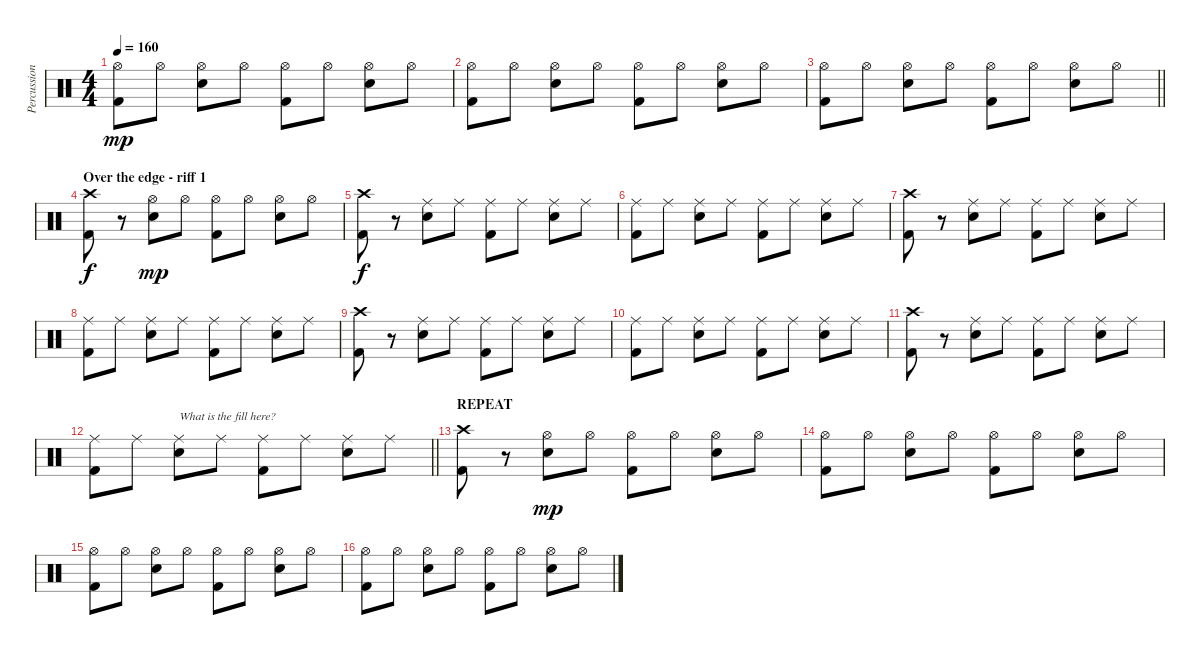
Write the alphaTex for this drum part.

\track ("Percussion - live 1983" "Percussion") {mute instrument percussion}
\staff {score}
\articulation defaults
\ts (4 4)
\tempo 160
\clef neutral
\ks c
("Hi-Hat (open)" "Kick (hit) 2").8{dy mp} "Hi-Hat (open)".8 ("Hi-Hat (open)" "Snare (hit) 2").8 "Hi-Hat (open)".8 ("Hi-Hat (open)" "Kick (hit) 2").8 "Hi-Hat (open)".8 ("Hi-Hat (open)" "Snare (hit) 2").8 "Hi-Hat (open)".8 |
("Hi-Hat (open)" "Kick (hit) 2").8 "Hi-Hat (open)".8 ("Hi-Hat (open)" "Snare (hit) 2").8 "Hi-Hat (open)".8 ("Hi-Hat (open)" "Kick (hit) 2").8 "Hi-Hat (open)".8 ("Hi-Hat (open)" "Snare (hit) 2").8 "Hi-Hat (open)".8 |
\barLineRight lightlight
("Hi-Hat (open)" "Kick (hit) 2").8 "Hi-Hat (open)".8 ("Hi-Hat (open)" "Snare (hit) 2").8 "Hi-Hat (open)".8 ("Hi-Hat (open)" "Kick (hit) 2").8 "Hi-Hat (open)".8 ("Hi-Hat (open)" "Snare (hit) 2").8 "Hi-Hat (open)".8 |
\section ("" "Over the edge - riff 1")
("Crash high (hit)" "Kick (hit) 2").8{dy f} r.8 ("Hi-Hat (open)" "Snare (hit) 2").8{dy mp} "Hi-Hat (open)".8 ("Hi-Hat (open)" "Kick (hit) 2").8 "Hi-Hat (open)".8 ("Hi-Hat (open)" "Snare (hit) 2").8 "Hi-Hat (open)".8 |
("Crash high (hit)" "Kick (hit) 2").8{dy f} r.8 ("Ride (middle)" "Snare (hit) 2").8 "Ride (middle)".8 ("Ride (middle)" "Kick (hit) 2").8 "Ride (middle)".8 ("Ride (middle)" "Snare (hit) 2").8 "Ride (middle)".8 |
("Ride (middle)" "Kick (hit) 2").8 "Ride (middle)".8 ("Ride (middle)" "Snare (hit) 2").8 "Ride (middle)".8 ("Ride (middle)" "Kick (hit) 2").8 "Ride (middle)".8 ("Ride (middle)" "Snare (hit) 2").8 "Ride (middle)".8 |
("Crash high (hit)" "Kick (hit) 2").8 r.8 ("Ride (middle)" "Snare (hit) 2").8 "Ride (middle)".8 ("Ride (middle)" "Kick (hit) 2").8 "Ride (middle)".8 ("Ride (middle)" "Snare (hit) 2").8 "Ride (middle)".8 |
("Ride (middle)" "Kick (hit) 2").8 "Ride (middle)".8 ("Ride (middle)" "Snare (hit) 2").8 "Ride (middle)".8 ("Ride (middle)" "Kick (hit) 2").8 "Ride (middle)".8 ("Ride (middle)" "Snare (hit) 2").8 "Ride (middle)".8 |
("Crash high (hit)" "Kick (hit) 2").8 r.8 ("Ride (middle)" "Snare (hit) 2").8 "Ride (middle)".8 ("Ride (middle)" "Kick (hit) 2").8 "Ride (middle)".8 ("Ride (middle)" "Snare (hit) 2").8 "Ride (middle)".8 |
("Ride (middle)" "Kick (hit) 2").8 "Ride (middle)".8 ("Ride (middle)" "Snare (hit) 2").8 "Ride (middle)".8 ("Ride (middle)" "Kick (hit) 2").8 "Ride (middle)".8 ("Ride (middle)" "Snare (hit) 2").8 "Ride (middle)".8 |
("Crash high (hit)" "Kick (hit) 2").8 r.8 ("Ride (middle)" "Snare (hit) 2").8 "Ride (middle)".8 ("Ride (middle)" "Kick (hit) 2").8 "Ride (middle)".8 ("Ride (middle)" "Snare (hit) 2").8 "Ride (middle)".8 |
\barLineRight lightlight
("Ride (middle)" "Kick (hit) 2").8 "Ride (middle)".8 ("Ride (middle)" "Snare (hit) 2").8{txt "What is the fill here?"} "Ride (middle)".8 ("Ride (middle)" "Kick (hit) 2").8 "Ride (middle)".8 ("Ride (middle)" "Snare (hit) 2").8 "Ride (middle)".8 |
\section ("" "REPEAT")
("Crash high (hit)" "Kick (hit) 2").8 r.8 ("Hi-Hat (open)" "Snare (hit) 2").8{dy mp} "Hi-Hat (open)".8 ("Hi-Hat (open)" "Kick (hit) 2").8 "Hi-Hat (open)".8 ("Hi-Hat (open)" "Snare (hit) 2").8 "Hi-Hat (open)".8 |
("Hi-Hat (open)" "Kick (hit) 2").8 "Hi-Hat (open)".8 ("Hi-Hat (open)" "Snare (hit) 2").8 "Hi-Hat (open)".8 ("Hi-Hat (open)" "Kick (hit) 2").8 "Hi-Hat (open)".8 ("Hi-Hat (open)" "Snare (hit) 2").8 "Hi-Hat (open)".8 |
("Hi-Hat (open)" "Kick (hit) 2").8 "Hi-Hat (open)".8 ("Hi-Hat (open)" "Snare (hit) 2").8 "Hi-Hat (open)".8 ("Hi-Hat (open)" "Kick (hit) 2").8 "Hi-Hat (open)".8 ("Hi-Hat (open)" "Snare (hit) 2").8 "Hi-Hat (open)".8 |
("Hi-Hat (open)" "Kick (hit) 2").8 "Hi-Hat (open)".8 ("Hi-Hat (open)" "Snare (hit) 2").8 "Hi-Hat (open)".8 ("Hi-Hat (open)" "Kick (hit) 2").8 "Hi-Hat (open)".8 ("Hi-Hat (open)" "Snare (hit) 2").8 "Hi-Hat (open)".8
